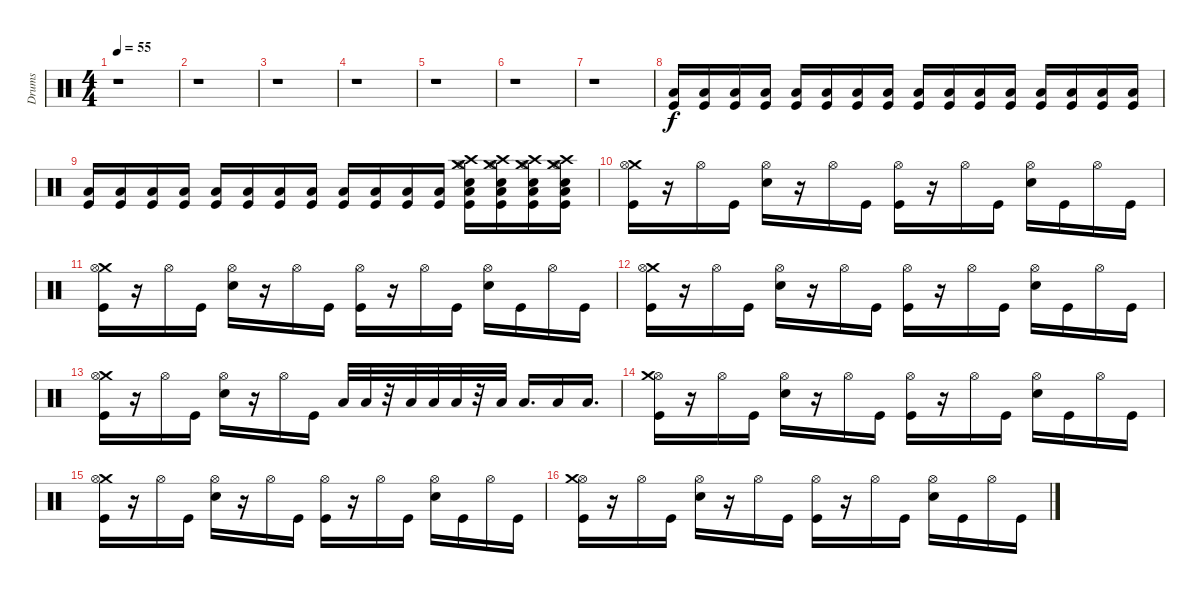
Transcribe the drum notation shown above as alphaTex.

\track ("Drums" "Drums") {instrument percussion}
\staff {score}
\articulation defaults
\ts (4 4)
\tempo 55
\clef neutral
\ks c
r.1{dy f} |
r.1 |
r.1 |
r.1 |
r.1 |
r.1 |
r.1 |
("Low Tom (hit)" "Kick (hit)").16{volume 6} ("Low Tom (hit)" "Kick (hit)").16{volume 6} ("Low Tom (hit)" "Kick (hit)").16{volume 7} ("Low Tom (hit)" "Kick (hit)").16{volume 7} ("Low Tom (hit)" "Kick (hit)").16{volume 7} ("Low Tom (hit)" "Kick (hit)").16{volume 8} ("Low Tom (hit)" "Kick (hit)").16{volume 8} ("Low Tom (hit)" "Kick (hit)").16{volume 8} ("Low Tom (hit)" "Kick (hit)").16{volume 8} ("Low Tom (hit)" "Kick (hit)").16{volume 9} ("Low Tom (hit)" "Kick (hit)").16{volume 9} ("Low Tom (hit)" "Kick (hit)").16{volume 9} ("Low Tom (hit)" "Kick (hit)").16{volume 9} ("Low Tom (hit)" "Kick (hit)").16{volume 10} ("Low Tom (hit)" "Kick (hit)").16{volume 10} ("Low Tom (hit)" "Kick (hit)").16{volume 10} |
("Kick (hit)" "Low Tom (hit)").16{volume 10} ("Kick (hit)" "Low Tom (hit)").16{volume 11} ("Kick (hit)" "Low Tom (hit)").16{volume 11} ("Kick (hit)" "Low Tom (hit)").16{volume 11} ("Low Tom (hit)" "Kick (hit)").16{volume 11} ("Kick (hit)" "Low Tom (hit)").16{volume 12} ("Kick (hit)" "Low Tom (hit)").16{volume 12} ("Kick (hit)" "Low Tom (hit)").16{volume 12} ("Low Tom (hit)" "Kick (hit)").16{volume 12} ("Low Tom (hit)" "Kick (hit)").16{volume 12} ("Kick (hit)" "Low Tom (hit)").16 ("Low Tom (hit)" "Kick (hit)").16 ("Hi-Hat (open)" "Low Tom (hit)" "Crash medium (hit)" "Crash high (hit)" "Electric Snare (hit)" "Kick (hit)").16 ("Hi-Hat (open)" "Crash medium (hit)" "Kick (hit)" "Low Tom (hit)" "Crash high (hit)" "Electric Snare (hit)").16 ("Hi-Hat (open)" "Kick (hit)" "Crash medium (hit)" "Electric Snare (hit)" "Crash high (hit)" "Low Tom (hit)").16 ("Hi-Hat (open)" "Crash medium (hit)" "Crash high (hit)" "Electric Snare (hit)" "Kick (hit)" "Low Tom (hit)").16 |
("Crash medium (hit)" "Kick (hit)" "Hi-Hat (open)").16 r.16 "Hi-Hat (open)".16 "Kick (hit)".16 ("Hi-Hat (open)" "Electric Snare (hit)").16 r.16 "Hi-Hat (open)".16 "Kick (hit)".16 ("Hi-Hat (open)" "Kick (hit)").16 r.16 "Hi-Hat (open)".16 "Kick (hit)".16 ("Electric Snare (hit)" "Hi-Hat (open)").16 "Kick (hit)".16 "Hi-Hat (open)".16 "Kick (hit)".16 |
("Crash medium (hit)" "Hi-Hat (open)" "Kick (hit)").16 r.16 "Hi-Hat (open)".16 "Kick (hit)".16 ("Electric Snare (hit)" "Hi-Hat (open)").16 r.16 "Hi-Hat (open)".16 "Kick (hit)".16 ("Kick (hit)" "Hi-Hat (open)").16 r.16 "Hi-Hat (open)".16 "Kick (hit)".16 ("Electric Snare (hit)" "Hi-Hat (open)").16 "Kick (hit)".16 "Hi-Hat (open)".16 "Kick (hit)".16 |
("Crash medium (hit)" "Hi-Hat (open)" "Kick (hit)").16 r.16 "Hi-Hat (open)".16 "Kick (hit)".16 ("Hi-Hat (open)" "Electric Snare (hit)").16 r.16 "Hi-Hat (open)".16 "Kick (hit)".16 ("Hi-Hat (open)" "Kick (hit)").16 r.16 "Hi-Hat (open)".16 "Kick (hit)".16 ("Hi-Hat (open)" "Electric Snare (hit)").16 "Kick (hit)".16 "Hi-Hat (open)".16 "Kick (hit)".16 |
("Crash medium (hit)" "Hi-Hat (open)" "Kick (hit)").16 r.16 "Hi-Hat (open)".16 "Kick (hit)".16 ("Electric Snare (hit)" "Hi-Hat (open)").16 r.16 "Hi-Hat (open)".16 "Kick (hit)".16 "Low Tom (hit)".32 "Low Tom (hit)".32 r.32 "Low Tom (hit)".32 "Low Tom (hit)".32 "Low Tom (hit)".32 r.32 "Low Tom (hit)".32 "Low Tom (hit)".16{d} "Low Tom (hit)".16 "Low Tom (hit)".16{d} |
("Kick (hit)" "Hi-Hat (open)" "Crash medium (hit)").16 r.16 "Hi-Hat (open)".16 "Kick (hit)".16 ("Electric Snare (hit)" "Hi-Hat (open)").16 r.16 "Hi-Hat (open)".16 "Kick (hit)".16 ("Kick (hit)" "Hi-Hat (open)").16 r.16 "Hi-Hat (open)".16 "Kick (hit)".16 ("Electric Snare (hit)" "Hi-Hat (open)").16 "Kick (hit)".16 "Hi-Hat (open)".16 "Kick (hit)".16 |
("Kick (hit)" "Crash medium (hit)" "Hi-Hat (open)").16 r.16 "Hi-Hat (open)".16 "Kick (hit)".16 ("Hi-Hat (open)" "Electric Snare (hit)").16 r.16 "Hi-Hat (open)".16 "Kick (hit)".16 ("Hi-Hat (open)" "Kick (hit)").16 r.16 "Hi-Hat (open)".16 "Kick (hit)".16 ("Electric Snare (hit)" "Hi-Hat (open)").16 "Kick (hit)".16 "Hi-Hat (open)".16 "Kick (hit)".16 |
("Hi-Hat (open)" "Crash medium (hit)" "Kick (hit)").16 r.16 "Hi-Hat (open)".16 "Kick (hit)".16 ("Electric Snare (hit)" "Hi-Hat (open)").16 r.16 "Hi-Hat (open)".16 "Kick (hit)".16 ("Kick (hit)" "Hi-Hat (open)").16 r.16 "Hi-Hat (open)".16 "Kick (hit)".16 ("Hi-Hat (open)" "Electric Snare (hit)").16 "Kick (hit)".16 "Hi-Hat (open)".16 "Kick (hit)".16
